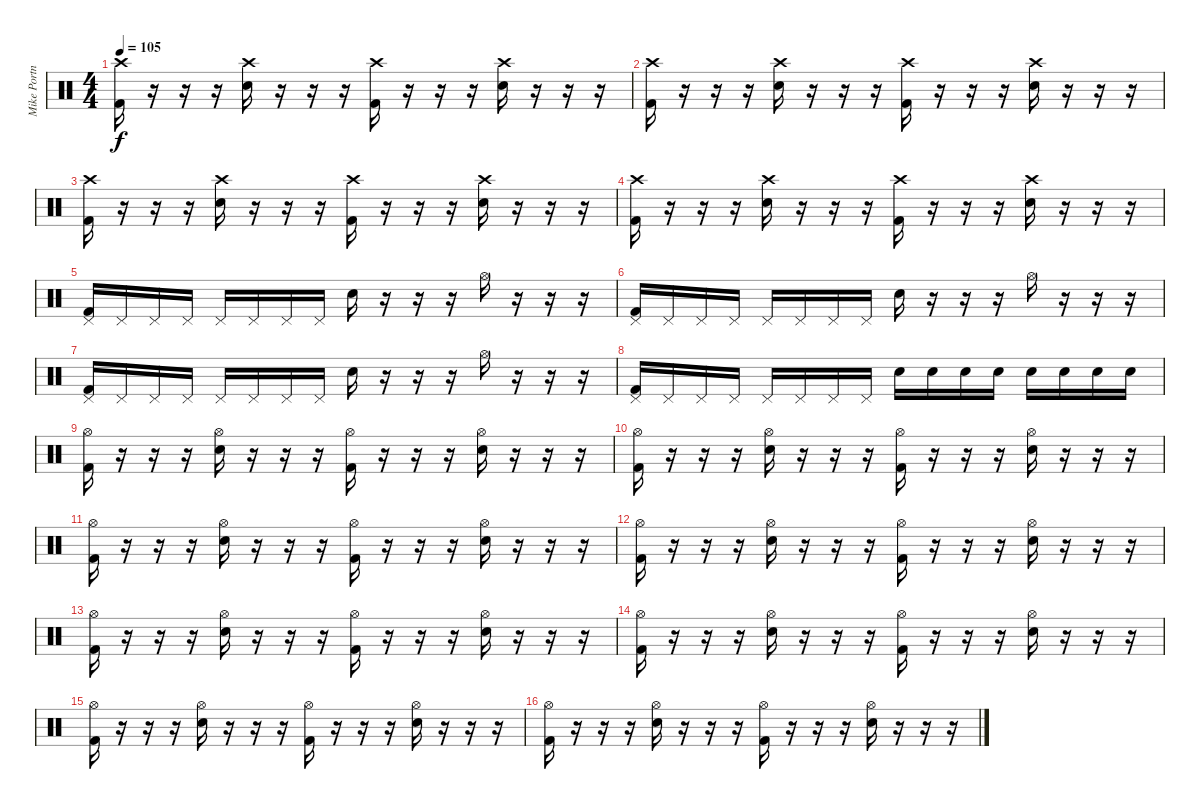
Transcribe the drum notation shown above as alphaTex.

\track ("Mike Portnoy" "Mike Portn") {instrument percussion}
\staff {score}
\articulation defaults
\ts (4 4)
\tempo 105
\clef neutral
\ks c
("Crash high (hit)" "Kick (hit) 2").16{dy f} r.16 r.16 r.16 ("Crash high (hit)" "Electric Snare (hit)").16 r.16 r.16 r.16 ("Crash high (hit)" "Kick (hit) 2").16 r.16 r.16 r.16 ("Crash high (hit)" "Electric Snare (hit)").16 r.16 r.16 r.16 |
("Crash high (hit)" "Kick (hit) 2").16 r.16 r.16 r.16 ("Crash high (hit)" "Electric Snare (hit)").16 r.16 r.16 r.16 ("Crash high (hit)" "Kick (hit) 2").16 r.16 r.16 r.16 ("Crash high (hit)" "Electric Snare (hit)").16 r.16 r.16 r.16 |
("Crash high (hit)" "Kick (hit) 2").16 r.16 r.16 r.16 ("Crash high (hit)" "Electric Snare (hit)").16 r.16 r.16 r.16 ("Crash high (hit)" "Kick (hit) 2").16 r.16 r.16 r.16 ("Crash high (hit)" "Electric Snare (hit)").16 r.16 r.16 r.16 |
("Crash high (hit)" "Kick (hit) 2").16 r.16 r.16 r.16 ("Crash high (hit)" "Electric Snare (hit)").16 r.16 r.16 r.16 ("Crash high (hit)" "Kick (hit) 2").16 r.16 r.16 r.16 ("Crash high (hit)" "Electric Snare (hit)").16 r.16 r.16 r.16 |
("Pedal Hi-Hat (hit)" "Kick (hit) 2").16 "Pedal Hi-Hat (hit)".16 "Pedal Hi-Hat (hit)".16 "Pedal Hi-Hat (hit)".16 "Pedal Hi-Hat (hit)".16 "Pedal Hi-Hat (hit)".16 "Pedal Hi-Hat (hit)".16 "Pedal Hi-Hat (hit)".16 "Electric Snare (hit)".16 r.16 r.16 r.16 "Hi-Hat (open)".16 r.16 r.16 r.16 |
("Pedal Hi-Hat (hit)" "Kick (hit) 2").16 "Pedal Hi-Hat (hit)".16 "Pedal Hi-Hat (hit)".16 "Pedal Hi-Hat (hit)".16 "Pedal Hi-Hat (hit)".16 "Pedal Hi-Hat (hit)".16 "Pedal Hi-Hat (hit)".16 "Pedal Hi-Hat (hit)".16 "Electric Snare (hit)".16 r.16 r.16 r.16 "Hi-Hat (open)".16 r.16 r.16 r.16 |
("Pedal Hi-Hat (hit)" "Kick (hit) 2").16 "Pedal Hi-Hat (hit)".16 "Pedal Hi-Hat (hit)".16 "Pedal Hi-Hat (hit)".16 "Pedal Hi-Hat (hit)".16 "Pedal Hi-Hat (hit)".16 "Pedal Hi-Hat (hit)".16 "Pedal Hi-Hat (hit)".16 "Electric Snare (hit)".16 r.16 r.16 r.16 "Hi-Hat (open)".16 r.16 r.16 r.16 |
("Pedal Hi-Hat (hit)" "Kick (hit) 2").16 "Pedal Hi-Hat (hit)".16 "Pedal Hi-Hat (hit)".16 "Pedal Hi-Hat (hit)".16 "Pedal Hi-Hat (hit)".16 "Pedal Hi-Hat (hit)".16 "Pedal Hi-Hat (hit)".16 "Pedal Hi-Hat (hit)".16 "Electric Snare (hit)".16 "Electric Snare (hit)".16 "Electric Snare (hit)".16 "Electric Snare (hit)".16 "Electric Snare (hit)".16 "Electric Snare (hit)".16 "Electric Snare (hit)".16 "Electric Snare (hit)".16 |
("Hi-Hat (open)" "Kick (hit) 2").16 r.16 r.16 r.16 ("Hi-Hat (open)" "Electric Snare (hit)").16 r.16 r.16 r.16 ("Hi-Hat (open)" "Kick (hit) 2").16 r.16 r.16 r.16 ("Hi-Hat (open)" "Electric Snare (hit)").16 r.16 r.16 r.16 |
("Hi-Hat (open)" "Kick (hit) 2").16 r.16 r.16 r.16 ("Hi-Hat (open)" "Electric Snare (hit)").16 r.16 r.16 r.16 ("Hi-Hat (open)" "Kick (hit) 2").16 r.16 r.16 r.16 ("Hi-Hat (open)" "Electric Snare (hit)").16 r.16 r.16 r.16 |
("Hi-Hat (open)" "Kick (hit) 2").16 r.16 r.16 r.16 ("Hi-Hat (open)" "Electric Snare (hit)").16 r.16 r.16 r.16 ("Hi-Hat (open)" "Kick (hit) 2").16 r.16 r.16 r.16 ("Hi-Hat (open)" "Electric Snare (hit)").16 r.16 r.16 r.16 |
("Hi-Hat (open)" "Kick (hit) 2").16 r.16 r.16 r.16 ("Hi-Hat (open)" "Electric Snare (hit)").16 r.16 r.16 r.16 ("Hi-Hat (open)" "Kick (hit) 2").16 r.16 r.16 r.16 ("Hi-Hat (open)" "Electric Snare (hit)").16 r.16 r.16 r.16 |
("Hi-Hat (open)" "Kick (hit) 2").16 r.16 r.16 r.16 ("Hi-Hat (open)" "Electric Snare (hit)").16 r.16 r.16 r.16 ("Hi-Hat (open)" "Kick (hit) 2").16 r.16 r.16 r.16 ("Hi-Hat (open)" "Electric Snare (hit)").16 r.16 r.16 r.16 |
("Hi-Hat (open)" "Kick (hit) 2").16 r.16 r.16 r.16 ("Hi-Hat (open)" "Electric Snare (hit)").16 r.16 r.16 r.16 ("Hi-Hat (open)" "Kick (hit) 2").16 r.16 r.16 r.16 ("Hi-Hat (open)" "Electric Snare (hit)").16 r.16 r.16 r.16 |
("Hi-Hat (open)" "Kick (hit) 2").16 r.16 r.16 r.16 ("Hi-Hat (open)" "Electric Snare (hit)").16 r.16 r.16 r.16 ("Hi-Hat (open)" "Kick (hit) 2").16 r.16 r.16 r.16 ("Hi-Hat (open)" "Electric Snare (hit)").16 r.16 r.16 r.16 |
("Hi-Hat (open)" "Kick (hit) 2").16 r.16 r.16 r.16 ("Hi-Hat (open)" "Electric Snare (hit)").16 r.16 r.16 r.16 ("Hi-Hat (open)" "Kick (hit) 2").16 r.16 r.16 r.16 ("Hi-Hat (open)" "Electric Snare (hit)").16 r.16 r.16 r.16
